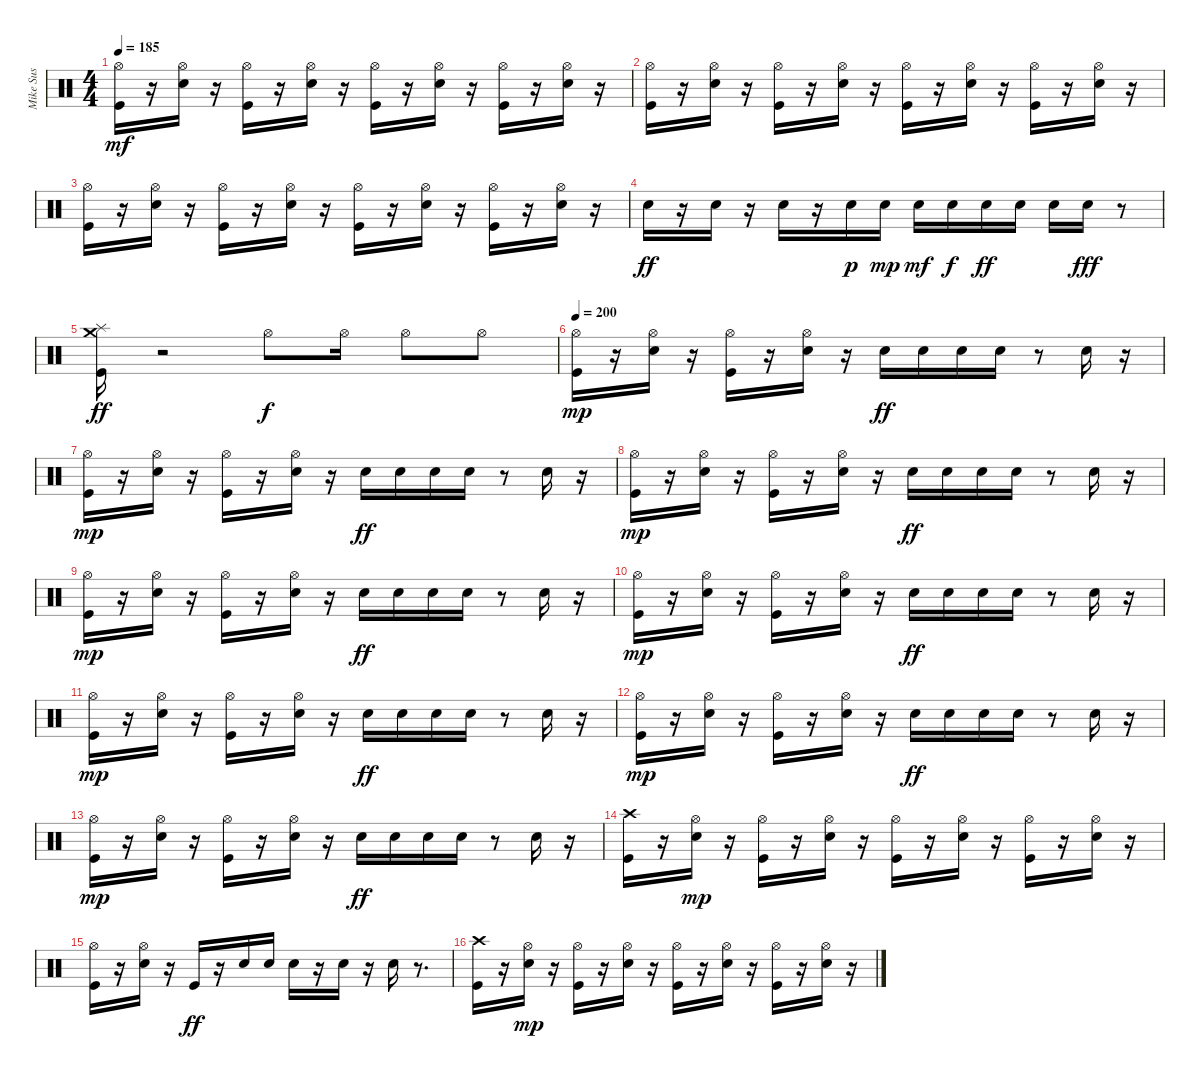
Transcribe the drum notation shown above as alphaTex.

\track ("Mike Sus" "Mike Sus") {instrument percussion}
\staff {score}
\articulation defaults
\ts (4 4)
\tempo 185
\clef neutral
\ks c
("Kick (hit)" "Hi-Hat (open)").16{dy mf} r.16 ("Snare (hit) 2" "Hi-Hat (open)").16 r.16 ("Kick (hit)" "Hi-Hat (open)").16 r.16 ("Snare (hit) 2" "Hi-Hat (open)").16 r.16 ("Kick (hit)" "Hi-Hat (open)").16 r.16 ("Snare (hit) 2" "Hi-Hat (open)").16 r.16 ("Kick (hit)" "Hi-Hat (open)").16 r.16 ("Snare (hit) 2" "Hi-Hat (open)").16 r.16 |
("Kick (hit)" "Hi-Hat (open)").16 r.16 ("Snare (hit) 2" "Hi-Hat (open)").16 r.16 ("Kick (hit)" "Hi-Hat (open)").16 r.16 ("Snare (hit) 2" "Hi-Hat (open)").16 r.16 ("Kick (hit)" "Hi-Hat (open)").16 r.16 ("Snare (hit) 2" "Hi-Hat (open)").16 r.16 ("Kick (hit)" "Hi-Hat (open)").16 r.16 ("Snare (hit) 2" "Hi-Hat (open)").16 r.16 |
("Kick (hit)" "Hi-Hat (open)").16 r.16 ("Snare (hit) 2" "Hi-Hat (open)").16 r.16 ("Kick (hit)" "Hi-Hat (open)").16 r.16 ("Snare (hit) 2" "Hi-Hat (open)").16 r.16 ("Kick (hit)" "Hi-Hat (open)").16 r.16 ("Snare (hit) 2" "Hi-Hat (open)").16 r.16 ("Kick (hit)" "Hi-Hat (open)").16 r.16 ("Snare (hit) 2" "Hi-Hat (open)").16 r.16 |
"Snare (hit) 2".16{dy ff} r.16 "Snare (hit) 2".16 r.16 "Snare (hit) 2".16 r.16 "Snare (hit) 2".16{dy p} "Snare (hit) 2".16{dy mp} "Snare (hit) 2".16{dy mf} "Snare (hit) 2".16{dy f} "Snare (hit) 2".16{dy ff} "Snare (hit) 2".16 "Snare (hit) 2".16 "Snare (hit) 2".16{dy fff} r.8 |
("Kick (hit)" "Crash medium (hit)" "Splash (hit)").16{dy ff} r.2 "Hi-Hat (open)".8{dy f} "Hi-Hat (open)".16 "Hi-Hat (open)".8 "Hi-Hat (open)".8 |
\tempo 200
("Kick (hit)" "Hi-Hat (open)").16{dy mp} r.16 ("Snare (hit) 2" "Hi-Hat (open)").16 r.16 ("Kick (hit)" "Hi-Hat (open)").16 r.16 ("Snare (hit) 2" "Hi-Hat (open)").16 r.16 "Snare (hit) 2".16{dy ff} "Snare (hit) 2".16 "Snare (hit) 2".16 "Snare (hit) 2".16 r.8 "Snare (hit) 2".16 r.16 |
("Kick (hit)" "Hi-Hat (open)").16{dy mp} r.16 ("Snare (hit) 2" "Hi-Hat (open)").16 r.16 ("Kick (hit)" "Hi-Hat (open)").16 r.16 ("Snare (hit) 2" "Hi-Hat (open)").16 r.16 "Snare (hit) 2".16{dy ff} "Snare (hit) 2".16 "Snare (hit) 2".16 "Snare (hit) 2".16 r.8 "Snare (hit) 2".16 r.16 |
("Kick (hit)" "Hi-Hat (open)").16{dy mp} r.16 ("Snare (hit) 2" "Hi-Hat (open)").16 r.16 ("Kick (hit)" "Hi-Hat (open)").16 r.16 ("Snare (hit) 2" "Hi-Hat (open)").16 r.16 "Snare (hit) 2".16{dy ff} "Snare (hit) 2".16 "Snare (hit) 2".16 "Snare (hit) 2".16 r.8 "Snare (hit) 2".16 r.16 |
("Kick (hit)" "Hi-Hat (open)").16{dy mp} r.16 ("Snare (hit) 2" "Hi-Hat (open)").16 r.16 ("Kick (hit)" "Hi-Hat (open)").16 r.16 ("Snare (hit) 2" "Hi-Hat (open)").16 r.16 "Snare (hit) 2".16{dy ff} "Snare (hit) 2".16 "Snare (hit) 2".16 "Snare (hit) 2".16 r.8 "Snare (hit) 2".16 r.16 |
("Kick (hit)" "Hi-Hat (open)").16{dy mp} r.16 ("Snare (hit) 2" "Hi-Hat (open)").16 r.16 ("Kick (hit)" "Hi-Hat (open)").16 r.16 ("Snare (hit) 2" "Hi-Hat (open)").16 r.16 "Snare (hit) 2".16{dy ff} "Snare (hit) 2".16 "Snare (hit) 2".16 "Snare (hit) 2".16 r.8 "Snare (hit) 2".16 r.16 |
("Kick (hit)" "Hi-Hat (open)").16{dy mp} r.16 ("Snare (hit) 2" "Hi-Hat (open)").16 r.16 ("Kick (hit)" "Hi-Hat (open)").16 r.16 ("Snare (hit) 2" "Hi-Hat (open)").16 r.16 "Snare (hit) 2".16{dy ff} "Snare (hit) 2".16 "Snare (hit) 2".16 "Snare (hit) 2".16 r.8 "Snare (hit) 2".16 r.16 |
("Kick (hit)" "Hi-Hat (open)").16{dy mp} r.16 ("Snare (hit) 2" "Hi-Hat (open)").16 r.16 ("Kick (hit)" "Hi-Hat (open)").16 r.16 ("Snare (hit) 2" "Hi-Hat (open)").16 r.16 "Snare (hit) 2".16{dy ff} "Snare (hit) 2".16 "Snare (hit) 2".16 "Snare (hit) 2".16 r.8 "Snare (hit) 2".16 r.16 |
("Kick (hit)" "Hi-Hat (open)").16{dy mp} r.16 ("Snare (hit) 2" "Hi-Hat (open)").16 r.16 ("Kick (hit)" "Hi-Hat (open)").16 r.16 ("Snare (hit) 2" "Hi-Hat (open)").16 r.16 "Snare (hit) 2".16{dy ff} "Snare (hit) 2".16 "Snare (hit) 2".16 "Snare (hit) 2".16 r.8 "Snare (hit) 2".16 r.16 |
("Kick (hit)" "Crash high (hit)").16 r.16 ("Snare (hit) 2" "Hi-Hat (open)").16{dy mp} r.16 ("Kick (hit)" "Hi-Hat (open)").16 r.16 ("Snare (hit) 2" "Hi-Hat (open)").16 r.16 ("Kick (hit)" "Hi-Hat (open)").16 r.16 ("Snare (hit) 2" "Hi-Hat (open)").16 r.16 ("Kick (hit)" "Hi-Hat (open)").16 r.16 ("Snare (hit) 2" "Hi-Hat (open)").16 r.16 |
("Kick (hit)" "Hi-Hat (open)").16 r.16 ("Snare (hit) 2" "Hi-Hat (open)").16 r.16 "Kick (hit)".16{dy ff} r.16 "Snare (hit) 2".16 "Snare (hit) 2".16 "Snare (hit) 2".16 r.16 "Snare (hit) 2".16 r.16 "Snare (hit) 2".16 r.8{d} |
("Kick (hit)" "Crash high (hit)").16 r.16 ("Snare (hit) 2" "Hi-Hat (open)").16{dy mp} r.16 ("Kick (hit)" "Hi-Hat (open)").16 r.16 ("Snare (hit) 2" "Hi-Hat (open)").16 r.16 ("Kick (hit)" "Hi-Hat (open)").16 r.16 ("Snare (hit) 2" "Hi-Hat (open)").16 r.16 ("Kick (hit)" "Hi-Hat (open)").16 r.16 ("Snare (hit) 2" "Hi-Hat (open)").16 r.16
